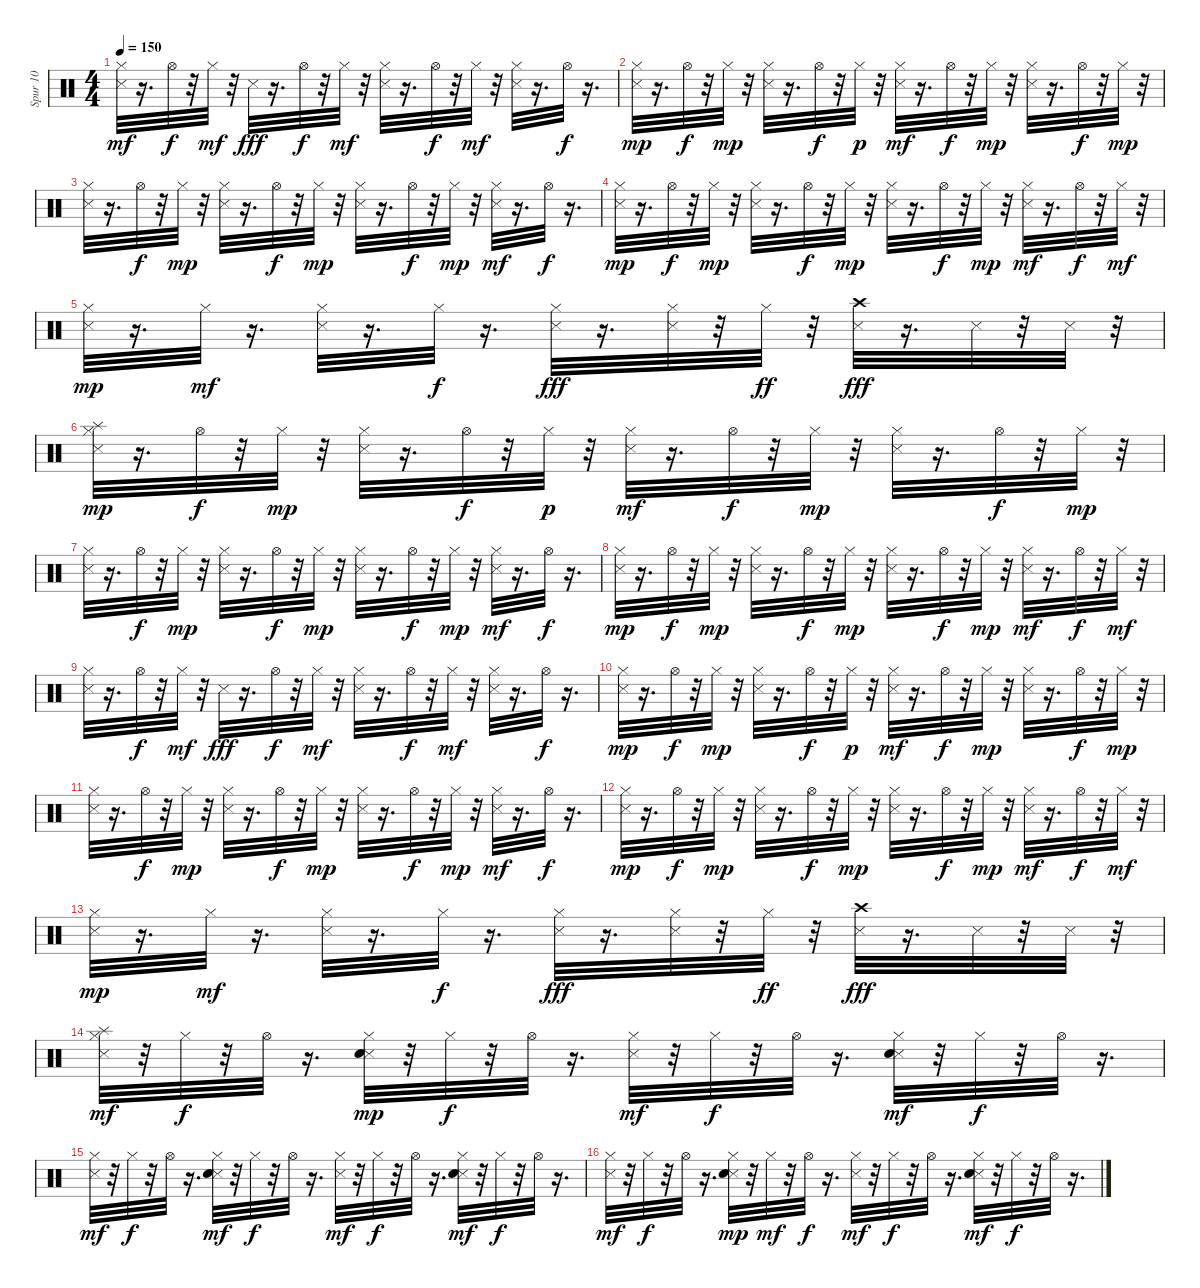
\track ("Spur 10" "Spur 10") {instrument percussion}
\staff {score}
\articulation defaults
\ts (4 4)
\tempo 150
\clef neutral
\ks c
("Metronome (hit)" "Hi-Hat (closed)").32{dy mf} r.16{d} "Hi-Hat (open)".32{dy f} r.32 "Hi-Hat (closed)".32{dy mf} r.32 "Metronome (hit)".32{dy fff} r.16{d} "Hi-Hat (open)".32{dy f} r.32 "Hi-Hat (closed)".32{dy mf} r.32 ("Metronome (hit)" "Hi-Hat (closed)").32 r.16{d} "Hi-Hat (open)".32{dy f} r.32 "Hi-Hat (closed)".32{dy mf} r.32 ("Metronome (hit)" "Hi-Hat (closed)").32 r.16{d} "Hi-Hat (open)".32{dy f} r.16{d} |
("Metronome (hit)" "Hi-Hat (closed)").32{dy mp} r.16{d} "Hi-Hat (open)".32{dy f} r.32 "Hi-Hat (closed)".32{dy mp} r.32 ("Metronome (hit)" "Hi-Hat (closed)").32 r.16{d} "Hi-Hat (open)".32{dy f} r.32 "Hi-Hat (closed)".32{dy p} r.32 ("Metronome (hit)" "Hi-Hat (closed)").32{dy mf} r.16{d} "Hi-Hat (open)".32{dy f} r.32 "Hi-Hat (closed)".32{dy mp} r.32 ("Metronome (hit)" "Hi-Hat (closed)").32 r.16{d} "Hi-Hat (open)".32{dy f} r.32 "Hi-Hat (closed)".32{dy mp} r.32 |
("Metronome (hit)" "Hi-Hat (closed)").32 r.16{d} "Hi-Hat (open)".32{dy f} r.32 "Hi-Hat (closed)".32{dy mp} r.32 ("Metronome (hit)" "Hi-Hat (closed)").32 r.16{d} "Hi-Hat (open)".32{dy f} r.32 "Hi-Hat (closed)".32{dy mp} r.32 ("Metronome (hit)" "Hi-Hat (closed)").32 r.16{d} "Hi-Hat (open)".32{dy f} r.32 "Hi-Hat (closed)".32{dy mp} r.32 ("Metronome (hit)" "Hi-Hat (closed)").32{dy mf} r.16{d} "Hi-Hat (open)".32{dy f} r.16{d} |
("Metronome (hit)" "Hi-Hat (closed)").32{dy mp} r.16{d} "Hi-Hat (open)".32{dy f} r.32 "Hi-Hat (closed)".32{dy mp} r.32 ("Metronome (hit)" "Hi-Hat (closed)").32 r.16{d} "Hi-Hat (open)".32{dy f} r.32 "Hi-Hat (closed)".32{dy mp} r.32 ("Metronome (hit)" "Hi-Hat (closed)").32 r.16{d} "Hi-Hat (open)".32{dy f} r.32 "Hi-Hat (closed)".32{dy mp} r.32 ("Metronome (hit)" "Hi-Hat (closed)").32{dy mf} r.16{d} "Hi-Hat (open)".32{dy f} r.32 "Hi-Hat (closed)".32{dy mf} r.32 |
("Metronome (hit)" "Hi-Hat (closed)").32{dy mp} r.16{d} "Hi-Hat (closed)".32{dy mf} r.16{d} ("Metronome (hit)" "Hi-Hat (closed)").32 r.16{d} "Hi-Hat (closed)".32{dy f} r.16{d} ("Metronome (hit)" "Hi-Hat (closed)").32{dy fff} r.16{d} ("Metronome (hit)" "Hi-Hat (closed)").32 r.32 "Hi-Hat (closed)".32{dy ff} r.32 ("Metronome (hit)" "Crash high (hit)").32{dy fff} r.16{d} "Metronome (hit)".32 r.32 "Metronome (hit)".32 r.32 |
("Splash (hit)" "Metronome (hit)" "Hi-Hat (closed)").32{dy mp} r.16{d} "Hi-Hat (open)".32{dy f} r.32 "Hi-Hat (closed)".32{dy mp} r.32 ("Metronome (hit)" "Hi-Hat (closed)").32 r.16{d} "Hi-Hat (open)".32{dy f} r.32 "Hi-Hat (closed)".32{dy p} r.32 ("Metronome (hit)" "Hi-Hat (closed)").32{dy mf} r.16{d} "Hi-Hat (open)".32{dy f} r.32 "Hi-Hat (closed)".32{dy mp} r.32 ("Metronome (hit)" "Hi-Hat (closed)").32 r.16{d} "Hi-Hat (open)".32{dy f} r.32 "Hi-Hat (closed)".32{dy mp} r.32 |
("Metronome (hit)" "Hi-Hat (closed)").32 r.16{d} "Hi-Hat (open)".32{dy f} r.32 "Hi-Hat (closed)".32{dy mp} r.32 ("Metronome (hit)" "Hi-Hat (closed)").32 r.16{d} "Hi-Hat (open)".32{dy f} r.32 "Hi-Hat (closed)".32{dy mp} r.32 ("Metronome (hit)" "Hi-Hat (closed)").32 r.16{d} "Hi-Hat (open)".32{dy f} r.32 "Hi-Hat (closed)".32{dy mp} r.32 ("Metronome (hit)" "Hi-Hat (closed)").32{dy mf} r.16{d} "Hi-Hat (open)".32{dy f} r.16{d} |
("Metronome (hit)" "Hi-Hat (closed)").32{dy mp} r.16{d} "Hi-Hat (open)".32{dy f} r.32 "Hi-Hat (closed)".32{dy mp} r.32 ("Metronome (hit)" "Hi-Hat (closed)").32 r.16{d} "Hi-Hat (open)".32{dy f} r.32 "Hi-Hat (closed)".32{dy mp} r.32 ("Metronome (hit)" "Hi-Hat (closed)").32 r.16{d} "Hi-Hat (open)".32{dy f} r.32 "Hi-Hat (closed)".32{dy mp} r.32 ("Metronome (hit)" "Hi-Hat (closed)").32{dy mf} r.16{d} "Hi-Hat (open)".32{dy f} r.32 "Hi-Hat (closed)".32{dy mf} r.32 |
("Metronome (hit)" "Hi-Hat (closed)").32 r.16{d} "Hi-Hat (open)".32{dy f} r.32 "Hi-Hat (closed)".32{dy mf} r.32 "Metronome (hit)".32{dy fff} r.16{d} "Hi-Hat (open)".32{dy f} r.32 "Hi-Hat (closed)".32{dy mf} r.32 ("Metronome (hit)" "Hi-Hat (closed)").32 r.16{d} "Hi-Hat (open)".32{dy f} r.32 "Hi-Hat (closed)".32{dy mf} r.32 ("Metronome (hit)" "Hi-Hat (closed)").32 r.16{d} "Hi-Hat (open)".32{dy f} r.16{d} |
("Metronome (hit)" "Hi-Hat (closed)").32{dy mp} r.16{d} "Hi-Hat (open)".32{dy f} r.32 "Hi-Hat (closed)".32{dy mp} r.32 ("Metronome (hit)" "Hi-Hat (closed)").32 r.16{d} "Hi-Hat (open)".32{dy f} r.32 "Hi-Hat (closed)".32{dy p} r.32 ("Metronome (hit)" "Hi-Hat (closed)").32{dy mf} r.16{d} "Hi-Hat (open)".32{dy f} r.32 "Hi-Hat (closed)".32{dy mp} r.32 ("Metronome (hit)" "Hi-Hat (closed)").32 r.16{d} "Hi-Hat (open)".32{dy f} r.32 "Hi-Hat (closed)".32{dy mp} r.32 |
("Metronome (hit)" "Hi-Hat (closed)").32 r.16{d} "Hi-Hat (open)".32{dy f} r.32 "Hi-Hat (closed)".32{dy mp} r.32 ("Metronome (hit)" "Hi-Hat (closed)").32 r.16{d} "Hi-Hat (open)".32{dy f} r.32 "Hi-Hat (closed)".32{dy mp} r.32 ("Metronome (hit)" "Hi-Hat (closed)").32 r.16{d} "Hi-Hat (open)".32{dy f} r.32 "Hi-Hat (closed)".32{dy mp} r.32 ("Metronome (hit)" "Hi-Hat (closed)").32{dy mf} r.16{d} "Hi-Hat (open)".32{dy f} r.16{d} |
("Metronome (hit)" "Hi-Hat (closed)").32{dy mp} r.16{d} "Hi-Hat (open)".32{dy f} r.32 "Hi-Hat (closed)".32{dy mp} r.32 ("Metronome (hit)" "Hi-Hat (closed)").32 r.16{d} "Hi-Hat (open)".32{dy f} r.32 "Hi-Hat (closed)".32{dy mp} r.32 ("Metronome (hit)" "Hi-Hat (closed)").32 r.16{d} "Hi-Hat (open)".32{dy f} r.32 "Hi-Hat (closed)".32{dy mp} r.32 ("Metronome (hit)" "Hi-Hat (closed)").32{dy mf} r.16{d} "Hi-Hat (open)".32{dy f} r.32 "Hi-Hat (closed)".32{dy mf} r.32 |
("Metronome (hit)" "Hi-Hat (closed)").32{dy mp} r.16{d} "Hi-Hat (closed)".32{dy mf} r.16{d} ("Metronome (hit)" "Hi-Hat (closed)").32 r.16{d} "Hi-Hat (closed)".32{dy f} r.16{d} ("Metronome (hit)" "Hi-Hat (closed)").32{dy fff} r.16{d} ("Metronome (hit)" "Hi-Hat (closed)").32 r.32 "Hi-Hat (closed)".32{dy ff} r.32 ("Metronome (hit)" "Crash high (hit)").32{dy fff} r.16{d} "Metronome (hit)".32 r.32 "Metronome (hit)".32 r.32 |
("Splash (hit)" "Metronome (hit)" "Hi-Hat (closed)").32{dy mf} r.32 "Hi-Hat (closed)".32{dy f} r.32 "Hi-Hat (open)".32 r.16{d} ("Metronome (hit)" "Snare (hit) 2" "Hi-Hat (closed)").32{dy mp} r.32 "Hi-Hat (closed)".32{dy f} r.32 "Hi-Hat (open)".32 r.16{d} ("Metronome (hit)" "Hi-Hat (closed)").32{dy mf} r.32 "Hi-Hat (closed)".32{dy f} r.32 "Hi-Hat (open)".32 r.16{d} ("Metronome (hit)" "Snare (hit) 2" "Hi-Hat (closed)").32{dy mf} r.32 "Hi-Hat (closed)".32{dy f} r.32 "Hi-Hat (open)".32 r.16{d} |
("Metronome (hit)" "Hi-Hat (closed)").32{dy mf} r.32 "Hi-Hat (closed)".32{dy f} r.32 "Hi-Hat (open)".32 r.16{d} ("Metronome (hit)" "Snare (hit) 2" "Hi-Hat (closed)").32{dy mf} r.32 "Hi-Hat (closed)".32{dy f} r.32 "Hi-Hat (open)".32 r.16{d} ("Metronome (hit)" "Hi-Hat (closed)").32{dy mf} r.32 "Hi-Hat (closed)".32{dy f} r.32 "Hi-Hat (open)".32 r.16{d} ("Metronome (hit)" "Snare (hit) 2" "Hi-Hat (closed)").32{dy mf} r.32 "Hi-Hat (closed)".32{dy f} r.32 "Hi-Hat (open)".32 r.16{d} |
("Metronome (hit)" "Hi-Hat (closed)").32{dy mf} r.32 "Hi-Hat (closed)".32{dy f} r.32 "Hi-Hat (open)".32 r.16{d} ("Metronome (hit)" "Snare (hit) 2" "Hi-Hat (closed)").32{dy mp} r.32 "Hi-Hat (closed)".32{dy mf} r.32 "Hi-Hat (open)".32{dy f} r.16{d} ("Metronome (hit)" "Hi-Hat (closed)").32{dy mf} r.32 "Hi-Hat (closed)".32{dy f} r.32 "Hi-Hat (open)".32 r.16{d} ("Metronome (hit)" "Snare (hit) 2" "Hi-Hat (closed)").32{dy mf} r.32 "Hi-Hat (closed)".32{dy f} r.32 "Hi-Hat (open)".32 r.16{d}
